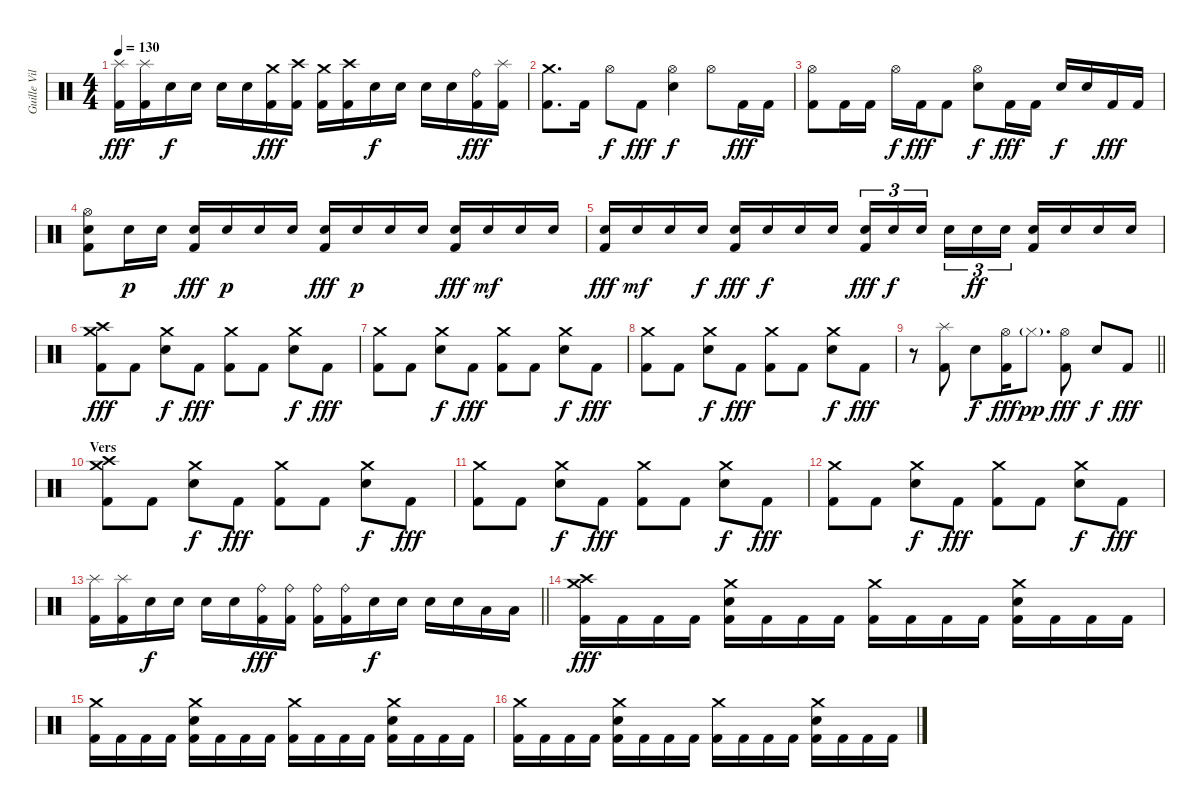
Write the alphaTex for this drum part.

\track ("Guille Vila" "Guille Vil") {instrument percussion}
\staff {score}
\articulation defaults
\ts (4 4)
\tempo 130
\clef neutral
\ks c
("Splash (hit)" "Kick (hit) 2").16{dy fff} ("Splash (hit)" "Kick (hit) 2").16 "Snare (hit) 2".16{dy f} "Snare (hit) 2".16 "Snare (hit) 2".16 "Snare (hit) 2".16 ("Crash medium (hit)" "Kick (hit) 2").16{dy fff} ("Crash high (hit)" "Kick (hit) 2").16 ("Crash medium (hit)" "Kick (hit) 2").16 ("Crash high (hit)" "Kick (hit) 2").16 "Snare (hit) 2".16{dy f} "Snare (hit) 2".16 "Snare (hit) 2".16 "Snare (hit) 2".16 ("Ride (bell)" "Kick (hit) 2").16{dy fff} ("Splash (hit)" "Kick (hit) 2").16 |
("Crash medium (hit)" "Kick (hit) 2").8{d} "Kick (hit) 2".16 "Hi-Hat (open)".8{dy f} "Kick (hit) 2".8{dy fff} ("Hi-Hat (open)" "Snare (hit) 2").4{dy f} "Hi-Hat (open)".8 "Kick (hit) 2".16{dy fff} "Kick (hit) 2".16 |
("Hi-Hat (open)" "Kick (hit) 2").8 "Kick (hit) 2".16 "Kick (hit) 2".16 "Hi-Hat (open)".16{dy f} "Kick (hit) 2".16{dy fff} "Kick (hit) 2".8 ("Hi-Hat (open)" "Snare (hit) 2").8{dy f} "Kick (hit) 2".16{dy fff} "Kick (hit) 2".16 "Snare (hit) 2".16{dy f} "Snare (hit) 2".16 "Kick (hit) 2".16{dy fff} "Kick (hit) 2".16 |
("Hi-Hat (open)" "Snare (hit) 2" "Kick (hit) 2").8 "Snare (hit) 2".16{dy p} "Snare (hit) 2".16 ("Snare (hit) 2" "Kick (hit) 2").16{dy fff} "Snare (hit) 2".16{dy p} "Snare (hit) 2".16 "Snare (hit) 2".16 ("Snare (hit) 2" "Kick (hit) 2").16{dy fff} "Snare (hit) 2".16{dy p} "Snare (hit) 2".16 "Snare (hit) 2".16 ("Snare (hit) 2" "Kick (hit) 2").16{dy fff} "Snare (hit) 2".16{dy mf} "Snare (hit) 2".16 "Snare (hit) 2".16 |
("Snare (hit) 2" "Kick (hit) 2").16{dy fff} "Snare (hit) 2".16{dy mf} "Snare (hit) 2".16 "Snare (hit) 2".16{dy f} ("Snare (hit) 2" "Kick (hit) 2").16{dy fff} "Snare (hit) 2".16{dy f} "Snare (hit) 2".16 "Snare (hit) 2".16 ("Snare (hit) 2" "Kick (hit) 2").16{tu (3 2) dy fff} "Snare (hit) 2".16{tu (3 2) dy f} "Snare (hit) 2".16{tu (3 2) beam splitsecondary} "Snare (hit) 2".16{tu (3 2)} "Snare (hit) 2".16{tu (3 2) dy ff} "Snare (hit) 2".16{tu (3 2)} ("Snare (hit) 2" "Kick (hit) 2").16 "Snare (hit) 2".16 "Snare (hit) 2".16 "Snare (hit) 2".16 |
("Crash medium (hit)" "Crash high (hit)" "Kick (hit) 2").8{dy fff} "Kick (hit) 2".8 ("Crash medium (hit)" "Snare (hit) 2").8{dy f} "Kick (hit) 2".8{dy fff} ("Crash medium (hit)" "Kick (hit) 2").8 "Kick (hit) 2".8 ("Crash medium (hit)" "Snare (hit) 2").8{dy f} "Kick (hit) 2".8{dy fff} |
("Crash medium (hit)" "Kick (hit) 2").8 "Kick (hit) 2".8 ("Crash medium (hit)" "Snare (hit) 2").8{dy f} "Kick (hit) 2".8{dy fff} ("Crash medium (hit)" "Kick (hit) 2").8 "Kick (hit) 2".8 ("Crash medium (hit)" "Snare (hit) 2").8{dy f} "Kick (hit) 2".8{dy fff} |
("Crash medium (hit)" "Kick (hit) 2").8 "Kick (hit) 2".8 ("Crash medium (hit)" "Snare (hit) 2").8{dy f} "Kick (hit) 2".8{dy fff} ("Crash medium (hit)" "Kick (hit) 2").8 "Kick (hit) 2".8 ("Crash medium (hit)" "Snare (hit) 2").8{dy f} "Kick (hit) 2".8{dy fff} |
\barLineRight lightlight
r.8 ("Splash (hit)" "Kick (hit) 2").8 "Snare (hit) 2".8{dy f} ("Hi-Hat (open)" "Kick (hit) 2").16{dy fff} "Hi-Hat (closed)"{g}.8{d dy pp} ("Hi-Hat (open)" "Kick (hit) 2").8{dy fff} "Snare (hit) 2".8{dy f} "Kick (hit) 2".8{dy fff} |
\section ("" "Vers")
("Crash medium (hit)" "Crash high (hit)" "Kick (hit) 2").8 "Kick (hit) 2".8 ("Crash medium (hit)" "Snare (hit) 2").8{dy f} "Kick (hit) 2".8{dy fff} ("Crash medium (hit)" "Kick (hit) 2").8 "Kick (hit) 2".8 ("Crash medium (hit)" "Snare (hit) 2").8{dy f} "Kick (hit) 2".8{dy fff} |
("Crash medium (hit)" "Kick (hit) 2").8 "Kick (hit) 2".8 ("Crash medium (hit)" "Snare (hit) 2").8{dy f} "Kick (hit) 2".8{dy fff} ("Crash medium (hit)" "Kick (hit) 2").8 "Kick (hit) 2".8 ("Crash medium (hit)" "Snare (hit) 2").8{dy f} "Kick (hit) 2".8{dy fff} |
("Crash medium (hit)" "Kick (hit) 2").8 "Kick (hit) 2".8 ("Crash medium (hit)" "Snare (hit) 2").8{dy f} "Kick (hit) 2".8{dy fff} ("Crash medium (hit)" "Kick (hit) 2").8 "Kick (hit) 2".8 ("Crash medium (hit)" "Snare (hit) 2").8{dy f} "Kick (hit) 2".8{dy fff} |
\barLineRight lightlight
("Splash (hit)" "Kick (hit) 2").16 ("Splash (hit)" "Kick (hit) 2").16 "Snare (hit) 2".16{dy f} "Snare (hit) 2".16 "Snare (hit) 2".16 "Snare (hit) 2".16 ("Ride (bell)" "Kick (hit) 2").16{dy fff} ("Ride (bell)" "Kick (hit) 2").16 ("Ride (bell)" "Kick (hit) 2").16 ("Ride (bell)" "Kick (hit) 2").16 "Snare (hit) 2".16{dy f} "Snare (hit) 2".16 "Snare (hit) 2".16 "Snare (hit) 2".16 "Low Tom (hit)".16 "Low Tom (hit)".16 |
("Crash medium (hit)" "Crash high (hit)" "Kick (hit) 2").16{dy fff} "Kick (hit) 2".16 "Kick (hit) 2".16 "Kick (hit) 2".16 ("Crash medium (hit)" "Snare (hit) 2" "Kick (hit) 2").16 "Kick (hit) 2".16 "Kick (hit) 2".16 "Kick (hit) 2".16 ("Crash medium (hit)" "Kick (hit) 2").16 "Kick (hit) 2".16 "Kick (hit) 2".16 "Kick (hit) 2".16 ("Crash medium (hit)" "Snare (hit) 2" "Kick (hit) 2").16 "Kick (hit) 2".16 "Kick (hit) 2".16 "Kick (hit) 2".16 |
("Crash medium (hit)" "Kick (hit) 2").16 "Kick (hit) 2".16 "Kick (hit) 2".16 "Kick (hit) 2".16 ("Crash medium (hit)" "Snare (hit) 2" "Kick (hit) 2").16 "Kick (hit) 2".16 "Kick (hit) 2".16 "Kick (hit) 2".16 ("Crash medium (hit)" "Kick (hit) 2").16 "Kick (hit) 2".16 "Kick (hit) 2".16 "Kick (hit) 2".16 ("Crash medium (hit)" "Snare (hit) 2" "Kick (hit) 2").16 "Kick (hit) 2".16 "Kick (hit) 2".16 "Kick (hit) 2".16 |
("Crash medium (hit)" "Kick (hit) 2").16 "Kick (hit) 2".16 "Kick (hit) 2".16 "Kick (hit) 2".16 ("Crash medium (hit)" "Snare (hit) 2" "Kick (hit) 2").16 "Kick (hit) 2".16 "Kick (hit) 2".16 "Kick (hit) 2".16 ("Crash medium (hit)" "Kick (hit) 2").16 "Kick (hit) 2".16 "Kick (hit) 2".16 "Kick (hit) 2".16 ("Crash medium (hit)" "Snare (hit) 2" "Kick (hit) 2").16 "Kick (hit) 2".16 "Kick (hit) 2".16 "Kick (hit) 2".16
